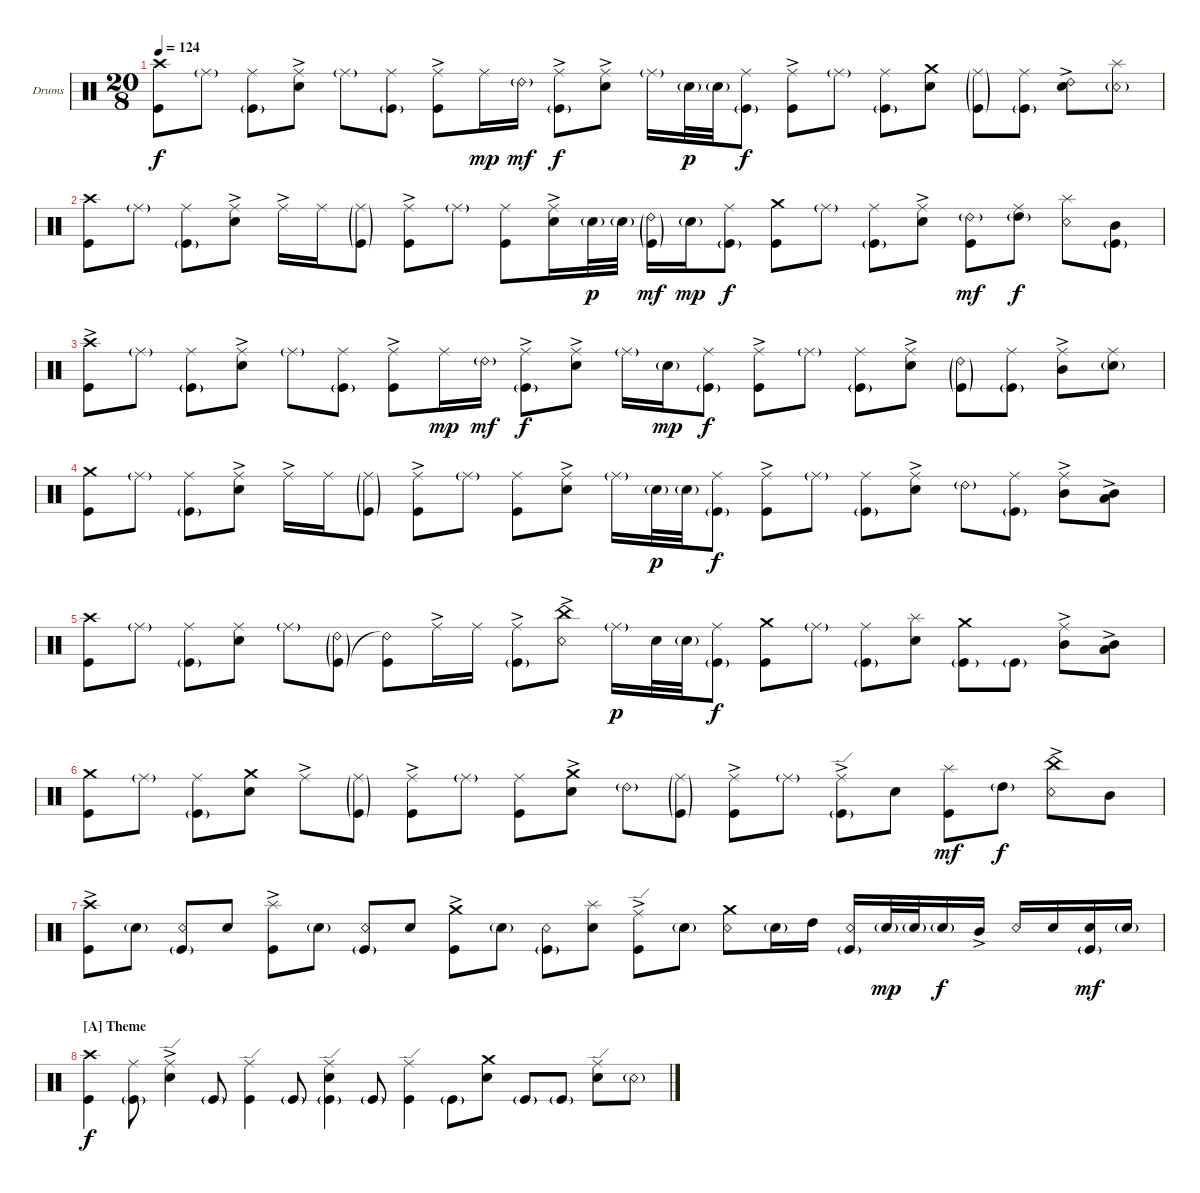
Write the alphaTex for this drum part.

\bracketExtendMode groupsimilarinstruments
\firstSystemTrackNameOrientation horizontal
\otherSystemsTrackNameOrientation horizontal
\track ("Drumkit" "Drums") {instrument percussion}
\staff {score}
\articulation defaults
\ts (20 8)
\tempo 124
\clef neutral
\ks c
("Kick (hit)" "Crash high (hit)").8{dy f} "Ride (middle)"{g}.8 ("Ride (middle)" "Kick (hit)"{g}).8 ("Ride (middle)"{ac} "Snare (hit) 2").8 "Ride (middle)"{g}.8 ("Ride (middle)" "Kick (hit)"{g}).8 ("Ride (middle)"{ac} "Kick (hit)").8 "Ride (middle)".16{dy mp} "Ride (bell) 2"{g}.16{dy mf} ("Ride (middle)"{ac} "Kick (hit)"{g}).8{dy f} ("Ride (middle)"{ac} "Snare (hit) 2").8 "Ride (middle)"{g}.16 "Snare (hit) 2"{g}.32{dy p} "Snare (hit) 2"{g}.32 ("Ride (middle)" "Kick (hit)"{g}).8{dy f} ("Kick (hit)" "Ride (middle)"{ac}).8 "Ride (middle)"{g}.8 ("Ride (middle)" "Kick (hit)"{g}).8 ("Snare (hit) 2" "Crash medium (hit)").8 ("Ride (middle)"{g} "Kick (hit)"{g}).8 ("Ride (middle)" "Kick (hit)"{g}).8 ("Ride (bell) 2"{ac} "Snare (hit) 2").8 ("Snare (rim shot)"{g} "Splash (hit)").8 |
("Kick (hit)" "Crash high (hit)").8 "Ride (middle)"{g}.8 ("Ride (middle)" "Kick (hit)"{g}).8 ("Ride (middle)"{ac} "Snare (hit) 2").8 "Ride (middle)"{ac}.16 "Ride (middle)".16 ("Ride (middle)"{g} "Kick (hit)"{g}).8 ("Ride (middle)"{ac} "Kick (hit)").8 "Ride (middle)"{g}.8 ("Ride (middle)" "Kick (hit)").8 ("Ride (middle)"{ac} "Snare (hit) 2").16 "Snare (hit) 2"{g}.32{dy p} "Snare (hit) 2"{g}.32 ("Ride (bell) 2"{g} "Kick (hit)"{g}).16{dy mf} "Snare (hit) 2"{g}.16{dy mp} ("Ride (middle)" "Kick (hit)"{g}).8{dy f} ("Crash medium (hit)" "Kick (hit)").8 "Ride (middle)"{g}.8 ("Ride (middle)" "Kick (hit)"{g}).8 ("Ride (middle)"{ac} "Snare (hit) 2").8 ("Ride (bell) 2"{g} "Kick (hit)").8{dy mf} ("High Tom (hit)"{g} "Ride (middle)").8{dy f} ("Snare (rim shot)" "Splash (hit)").8 ("Kick (hit)"{g} "Mid Tom (hit)").8 |
("Kick (hit)" "Crash high (hit)"{ac}).8 "Ride (middle)"{g}.8 ("Ride (middle)" "Kick (hit)"{g}).8 ("Ride (middle)"{ac} "Snare (hit) 2").8 "Ride (middle)"{g}.8 ("Ride (middle)" "Kick (hit)"{g}).8 ("Ride (middle)"{ac} "Kick (hit)").8 "Ride (middle)".16{dy mp} "Ride (bell) 2"{g}.16{dy mf} ("Ride (middle)"{ac} "Kick (hit)"{g}).8{dy f} ("Ride (middle)"{ac} "Snare (hit) 2").8 "Ride (middle)"{g}.16 "Snare (hit) 2"{g}.16{dy mp} ("Ride (middle)" "Kick (hit)"{g}).8{dy f} ("Kick (hit)" "Ride (middle)"{ac}).8 "Ride (middle)"{g}.8 ("Ride (middle)" "Kick (hit)"{g}).8 ("Ride (middle)"{ac} "Snare (hit) 2").8 ("Ride (bell) 2"{g} "Kick (hit)"{g}).8 ("Ride (middle)" "Kick (hit)"{g}).8 ("Ride (middle)"{ac} "Mid Tom (hit)").8 ("Ride (middle)" "Snare (hit) 2"{g}).8 |
("Kick (hit)" "Crash medium (hit)").8 "Ride (middle)"{g}.8 ("Ride (middle)" "Kick (hit)"{g}).8 ("Ride (middle)"{ac} "Snare (hit) 2").8 "Ride (middle)"{ac}.16 "Ride (middle)".16 ("Ride (middle)"{g} "Kick (hit)"{g}).8 ("Ride (middle)"{ac} "Kick (hit)").8 "Ride (middle)"{g}.8 ("Ride (middle)" "Kick (hit)").8 ("Ride (middle)"{ac} "Snare (hit) 2").8 "Ride (middle)"{g}.16 "Snare (hit) 2"{g}.32{dy p} "Snare (hit) 2"{g}.32 ("Ride (middle)" "Kick (hit)"{g}).8{dy f} ("Kick (hit)" "Ride (middle)"{ac}).8 "Ride (middle)"{g}.8 ("Ride (middle)" "Kick (hit)"{g}).8 ("Ride (middle)"{ac} "Snare (hit) 2").8 "Ride (bell) 2"{g}.8 ("Ride (middle)" "Kick (hit)"{g}).8 ("Ride (middle)"{ac} "Mid Tom (hit)").8 ("Mid Tom (hit)" "Low Tom (hit)"{ac}).8 |
("Kick (hit)" "Crash high (hit)").8 "Ride (middle)"{g}.8 ("Ride (middle)" "Kick (hit)"{g}).8 ("Snare (hit) 2" "Ride (middle)").8 "Ride (middle)"{g}.8 ("Ride (bell) 2"{g} "Kick (hit)"{g}).8 ("Kick (hit)" "Ride (bell) 2"{t}).8 "Ride (middle)"{ac}.16 "Ride (middle)".16 ("Ride (middle)"{ac} "Kick (hit)"{g}).8 ("Snare (rim shot)" "China (hit)"{ac}).8 "Ride (middle)"{g}.16{dy p} "Snare (hit) 2".32 "Snare (hit) 2"{g}.32 ("Ride (middle)" "Kick (hit)"{g}).8{dy f} ("Kick (hit)" "Crash medium (hit)").8 "Ride (middle)"{g}.8 ("Ride (middle)" "Kick (hit)"{g}).8 ("Snare (hit) 2" "Splash (hit)").8 ("Kick (hit)"{g} "Crash medium (hit)").8 "Kick (hit)"{g}.8 ("Ride (middle)"{ac} "Mid Tom (hit)").8 ("Mid Tom (hit)" "Low Tom (hit)"{ac}).8 |
("Kick (hit)" "Crash medium (hit)").8 "Ride (middle)"{g}.8 ("Ride (middle)" "Kick (hit)"{g}).8 ("Snare (hit) 2" "Crash medium (hit)").8 "Ride (middle)"{ac}.8 ("Ride (middle)"{g} "Kick (hit)"{g}).8 ("Ride (middle)"{ac} "Kick (hit)").8 "Ride (middle)"{g}.8 ("Ride (middle)" "Kick (hit)").8 ("Snare (hit) 2" "Crash medium (hit)"{ac}).8 "Ride (bell) 2"{g}.8 ("Ride (middle)"{g} "Kick (hit)"{g}).8 ("Ride (middle)"{ac} "Kick (hit)").8 "Ride (middle)"{g}.8 ("Ride (edge)"{ac} "Kick (hit)"{g}).8 "Snare (hit) 2".8 ("Kick (hit)" "Splash (hit)").8{dy mf} "High Tom (hit)"{g}.8{dy f} ("Snare (rim shot)" "China (hit)"{ac}).8 "Mid Tom (hit)".8 |
("Kick (hit)" "Crash high (hit)"{ac}).8 "Snare (hit) 2"{g}.8 ("Snare (rim shot)" "Kick (hit)"{g}).8 "Snare (hit) 2".8 ("Kick (hit)" "Splash (hit)"{ac}).8 "Snare (hit) 2"{g}.8 ("Snare (rim shot)" "Kick (hit)"{g}).8 "Snare (hit) 2".8 ("Kick (hit)" "Crash medium (hit)"{ac}).8 "Snare (hit) 2"{g}.8 ("Snare (rim shot)" "Kick (hit)"{g}).8 ("Snare (hit) 2" "Splash (hit)").8 ("Kick (hit)" "Ride (edge)"{ac}).8 "Snare (hit) 2"{g}.8 ("Snare (rim shot)" "Crash medium (hit)").8 "Snare (hit) 2"{g}.16 "High Tom (hit)".16 ("Snare (rim shot)" "Kick (hit)"{g}).16 "Snare (hit) 2"{g}.32{dy mp} "Snare (hit) 2"{g}.32 "Snare (hit) 2"{g}.16{dy f} "Mid Tom (hit)"{ac}.16 "Snare (rim shot)".16 "Snare (hit) 2".16 ("Snare (hit) 2" "Kick (hit)"{g}).16{dy mf} "Snare (hit) 2"{g}.16 |
\section ("A" "Theme")
("Kick (hit)" "Crash high (hit)").4{dy f} ("Kick (hit)"{g} "Ride (middle)").8 ("Snare (hit) 2" "Ride (edge)"{ac}).4 "Kick (hit)"{g}.8 ("Kick (hit)" "Ride (edge)").4 "Kick (hit)"{g}.8 ("Snare (hit) 2" "Ride (edge)" "Kick (hit)"{g}).4 "Kick (hit)"{g}.8 ("Kick (hit)" "Ride (edge)").4 "Kick (hit)"{g}.8 ("Snare (hit) 2" "Crash medium (hit)").8 "Kick (hit)"{g}.8 "Kick (hit)"{g}.8 ("Snare (hit) 2" "Ride (edge)").8 "Snare (rim shot)"{g}.8
